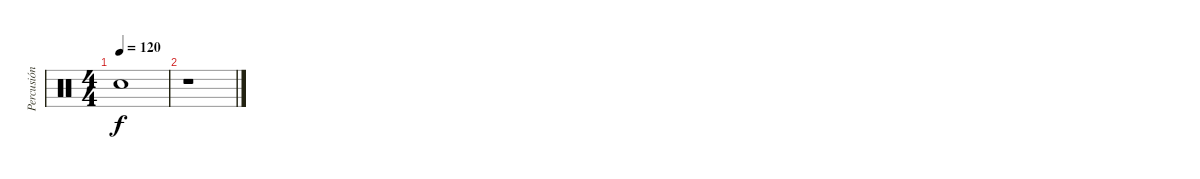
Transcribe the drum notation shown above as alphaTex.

\track ("Percusión" "Percusión") {instrument percussion}
\staff {score}
\articulation defaults
\ts (4 4)
\tempo 120
\clef neutral
\ks c "Snare (hit)"{t}.1{dy f}
|
r.1
